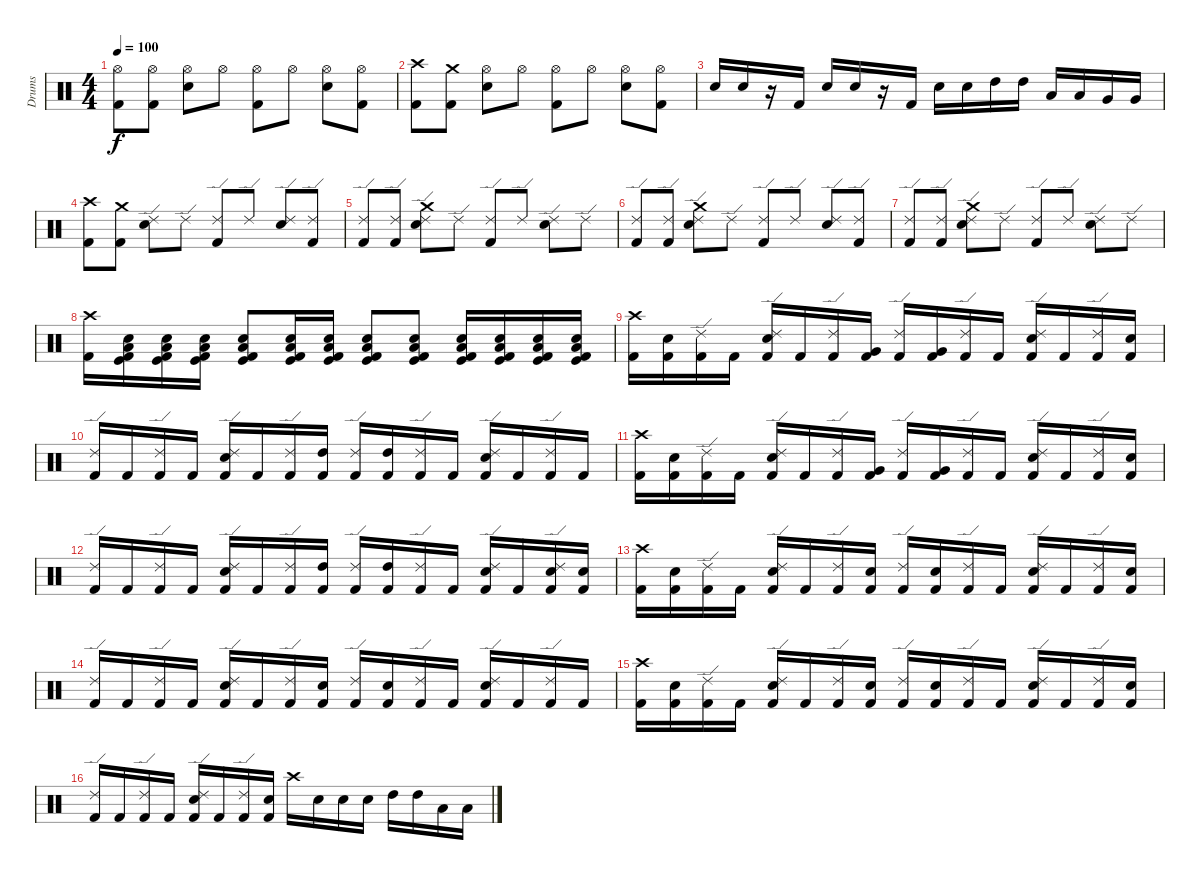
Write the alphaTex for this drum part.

\track ("Drums" "Drums") {instrument percussion}
\staff {score}
\articulation defaults
\ts (4 4)
\tempo 100
\clef neutral
\ks c
("Hi-Hat (open)" "Kick (hit) 2").8{dy f} ("Hi-Hat (open)" "Kick (hit) 2").8 ("Hi-Hat (open)" "Snare (hit) 2").8 "Hi-Hat (open)".8 ("Hi-Hat (open)" "Kick (hit) 2").8 "Hi-Hat (open)".8 ("Hi-Hat (open)" "Snare (hit) 2").8 ("Hi-Hat (open)" "Kick (hit) 2").8 |
("Crash high (hit)" "Kick (hit) 2").8 ("Crash medium (hit)" "Kick (hit) 2").8 ("Hi-Hat (open)" "Snare (hit) 2").8 "Hi-Hat (open)".8 ("Hi-Hat (open)" "Kick (hit) 2").8 "Hi-Hat (open)".8 ("Hi-Hat (open)" "Snare (hit) 2").8 ("Hi-Hat (open)" "Kick (hit) 2").8 |
"Snare (hit) 2".16 "Snare (hit) 2".16 r.16 "Kick (hit) 2".16 "Snare (hit) 2".16 "Snare (hit) 2".16 r.16 "Kick (hit) 2".16 "Snare (hit) 2".16 "Snare (hit) 2".16 "High Tom (hit)".16 "High Tom (hit)".16 "Low Tom (hit)".16 "Low Tom (hit)".16 "Very Low Tom (hit)".16 "Very Low Tom (hit)".16 |
("Crash high (hit)" "Kick (hit) 2").8 ("Crash medium (hit)" "Kick (hit) 2").8 ("Ride (edge) 2" "Snare (hit) 2").8 "Ride (edge) 2".8 ("Ride (edge) 2" "Kick (hit) 2").8 "Ride (edge) 2".8 ("Ride (edge) 2" "Snare (hit) 2").8 ("Ride (edge) 2" "Kick (hit) 2").8 |
("Ride (edge) 2" "Kick (hit) 2").8 ("Ride (edge) 2" "Kick (hit) 2").8 ("Crash medium (hit)" "Ride (edge) 2" "Snare (hit) 2").8 "Ride (edge) 2".8 ("Ride (edge) 2" "Kick (hit) 2").8 "Ride (edge) 2".8 ("Ride (edge) 2" "Snare (hit) 2").8 "Ride (edge) 2".8 |
("Ride (edge) 2" "Kick (hit) 2").8 ("Ride (edge) 2" "Kick (hit) 2").8 ("Crash medium (hit)" "Ride (edge) 2" "Snare (hit) 2").8 "Ride (edge) 2".8 ("Ride (edge) 2" "Kick (hit) 2").8 "Ride (edge) 2".8 ("Ride (edge) 2" "Snare (hit) 2").8 ("Ride (edge) 2" "Kick (hit) 2").8 |
("Ride (edge) 2" "Kick (hit) 2").8 ("Ride (edge) 2" "Kick (hit) 2").8 ("Crash medium (hit)" "Ride (edge) 2" "Snare (hit) 2").8 "Ride (edge) 2".8 ("Ride (edge) 2" "Kick (hit) 2").8 "Ride (edge) 2".8 ("Ride (edge) 2" "Snare (hit) 2").8 "Ride (edge) 2".8 |
("Crash high (hit)" "Kick (hit) 2").16 ("Kick (hit)" "Low Floor Tom (hit)" "Snare (hit) 2" "Kick (hit) 2").16 ("Kick (hit)" "Low Floor Tom (hit)" "Snare (hit) 2" "Kick (hit) 2").16 ("Kick (hit)" "Low Floor Tom (hit)" "Snare (hit) 2" "Kick (hit) 2").16 ("Kick (hit)" "Low Floor Tom (hit)" "Snare (hit) 2" "Kick (hit) 2").8 ("Kick (hit)" "Low Floor Tom (hit)" "Snare (hit) 2" "Kick (hit) 2").16 ("Kick (hit)" "Low Floor Tom (hit)" "Snare (hit) 2" "Kick (hit) 2").16 ("Kick (hit)" "Low Floor Tom (hit)" "Snare (hit) 2" "Kick (hit) 2").8 ("Kick (hit)" "Low Floor Tom (hit)" "Snare (hit) 2" "Kick (hit) 2").8 ("Kick (hit)" "Low Floor Tom (hit)" "Snare (hit) 2" "Kick (hit) 2").16 ("Kick (hit)" "Low Floor Tom (hit)" "Snare (hit) 2" "Kick (hit) 2").16 ("Kick (hit)" "Low Floor Tom (hit)" "Snare (hit) 2" "Kick (hit) 2").16 ("Kick (hit)" "Low Floor Tom (hit)" "Snare (hit) 2" "Kick (hit) 2").16 |
("Crash high (hit)" "Kick (hit) 2").16 ("Snare (hit) 2" "Kick (hit) 2").16 ("Ride (edge) 2" "Kick (hit) 2").16 "Kick (hit) 2".16 ("Ride (edge) 2" "Snare (hit) 2" "Kick (hit) 2").16 "Kick (hit) 2".16 ("Ride (edge) 2" "Kick (hit) 2").16 ("Very Low Tom (hit)" "Kick (hit) 2").16 ("Ride (edge) 2" "Kick (hit) 2").16 ("Very Low Tom (hit)" "Kick (hit) 2").16 ("Ride (edge) 2" "Kick (hit) 2").16 "Kick (hit) 2".16 ("Ride (edge) 2" "Snare (hit) 2" "Kick (hit) 2").16 "Kick (hit) 2".16 ("Ride (edge) 2" "Kick (hit) 2").16 ("Snare (hit) 2" "Kick (hit) 2").16 |
("Ride (edge) 2" "Kick (hit) 2").16 "Kick (hit) 2".16 ("Ride (edge) 2" "Kick (hit) 2").16 "Kick (hit) 2".16 ("Ride (edge) 2" "Snare (hit) 2" "Kick (hit) 2").16 "Kick (hit) 2".16 ("Ride (edge) 2" "Kick (hit) 2").16 ("High Tom (hit)" "Kick (hit) 2").16 ("Ride (edge) 2" "Kick (hit) 2").16 ("High Tom (hit)" "Kick (hit) 2").16 ("Ride (edge) 2" "Kick (hit) 2").16 "Kick (hit) 2".16 ("Ride (edge) 2" "Snare (hit) 2" "Kick (hit) 2").16 "Kick (hit) 2".16 ("Ride (edge) 2" "Kick (hit) 2").16 "Kick (hit) 2".16 |
("Crash high (hit)" "Kick (hit) 2").16 ("Snare (hit) 2" "Kick (hit) 2").16 ("Ride (edge) 2" "Kick (hit) 2").16 "Kick (hit) 2".16 ("Ride (edge) 2" "Snare (hit) 2" "Kick (hit) 2").16 "Kick (hit) 2".16 ("Ride (edge) 2" "Kick (hit) 2").16 ("Very Low Tom (hit)" "Kick (hit) 2").16 ("Ride (edge) 2" "Kick (hit) 2").16 ("Very Low Tom (hit)" "Kick (hit) 2").16 ("Ride (edge) 2" "Kick (hit) 2").16 "Kick (hit) 2".16 ("Ride (edge) 2" "Snare (hit) 2" "Kick (hit) 2").16 "Kick (hit) 2".16 ("Ride (edge) 2" "Kick (hit) 2").16 ("Snare (hit) 2" "Kick (hit) 2").16 |
("Ride (edge) 2" "Kick (hit) 2").16 "Kick (hit) 2".16 ("Ride (edge) 2" "Kick (hit) 2").16 "Kick (hit) 2".16 ("Ride (edge) 2" "Snare (hit) 2" "Kick (hit) 2").16 "Kick (hit) 2".16 ("Ride (edge) 2" "Kick (hit) 2").16 ("High Tom (hit)" "Kick (hit) 2").16 ("Ride (edge) 2" "Kick (hit) 2").16 ("High Tom (hit)" "Kick (hit) 2").16 ("Ride (edge) 2" "Kick (hit) 2").16 "Kick (hit) 2".16 ("Ride (edge) 2" "Snare (hit) 2" "Kick (hit) 2").16 "Kick (hit) 2".16 ("Ride (edge) 2" "Snare (hit) 2" "Kick (hit) 2").16 ("Snare (hit) 2" "Kick (hit) 2").16 |
("Crash high (hit)" "Kick (hit) 2").16 ("Snare (hit) 2" "Kick (hit) 2").16 ("Ride (edge) 2" "Kick (hit) 2").16 "Kick (hit) 2".16 ("Ride (edge) 2" "Snare (hit) 2" "Kick (hit) 2").16 "Kick (hit) 2".16 ("Ride (edge) 2" "Kick (hit) 2").16 ("Snare (hit) 2" "Kick (hit) 2").16 ("Ride (edge) 2" "Kick (hit) 2").16 ("Snare (hit) 2" "Kick (hit) 2").16 ("Ride (edge) 2" "Kick (hit) 2").16 "Kick (hit) 2".16 ("Ride (edge) 2" "Snare (hit) 2" "Kick (hit) 2").16 "Kick (hit) 2".16 ("Ride (edge) 2" "Kick (hit) 2").16 ("Snare (hit) 2" "Kick (hit) 2").16 |
("Ride (edge) 2" "Kick (hit) 2").16 "Kick (hit) 2".16 ("Ride (edge) 2" "Kick (hit) 2").16 "Kick (hit) 2".16 ("Ride (edge) 2" "Snare (hit) 2" "Kick (hit) 2").16 "Kick (hit) 2".16 ("Ride (edge) 2" "Kick (hit) 2").16 ("Snare (hit) 2" "Kick (hit) 2").16 ("Ride (edge) 2" "Kick (hit) 2").16 ("Snare (hit) 2" "Kick (hit) 2").16 ("Ride (edge) 2" "Kick (hit) 2").16 "Kick (hit) 2".16 ("Ride (edge) 2" "Snare (hit) 2" "Kick (hit) 2").16 "Kick (hit) 2".16 ("Ride (edge) 2" "Kick (hit) 2").16 "Kick (hit) 2".16 |
("Crash high (hit)" "Kick (hit) 2").16 ("Snare (hit) 2" "Kick (hit) 2").16 ("Ride (edge) 2" "Kick (hit) 2").16 "Kick (hit) 2".16 ("Ride (edge) 2" "Snare (hit) 2" "Kick (hit) 2").16 "Kick (hit) 2".16 ("Ride (edge) 2" "Kick (hit) 2").16 ("Snare (hit) 2" "Kick (hit) 2").16 ("Ride (edge) 2" "Kick (hit) 2").16 ("Snare (hit) 2" "Kick (hit) 2").16 ("Ride (edge) 2" "Kick (hit) 2").16 "Kick (hit) 2".16 ("Ride (edge) 2" "Snare (hit) 2" "Kick (hit) 2").16 "Kick (hit) 2".16 ("Ride (edge) 2" "Kick (hit) 2").16 ("Snare (hit) 2" "Kick (hit) 2").16 |
("Ride (edge) 2" "Kick (hit) 2").16 "Kick (hit) 2".16 ("Ride (edge) 2" "Kick (hit) 2").16 "Kick (hit) 2".16 ("Ride (edge) 2" "Snare (hit) 2" "Kick (hit) 2").16 "Kick (hit) 2".16 ("Ride (edge) 2" "Kick (hit) 2").16 ("Snare (hit) 2" "Kick (hit) 2").16 "Crash high (hit)".16 "Snare (hit) 2".16 "Snare (hit) 2".16 "Snare (hit) 2".16 "High Tom (hit)".16 "High Tom (hit)".16 "Low Tom (hit)".16 "Low Tom (hit)".16
